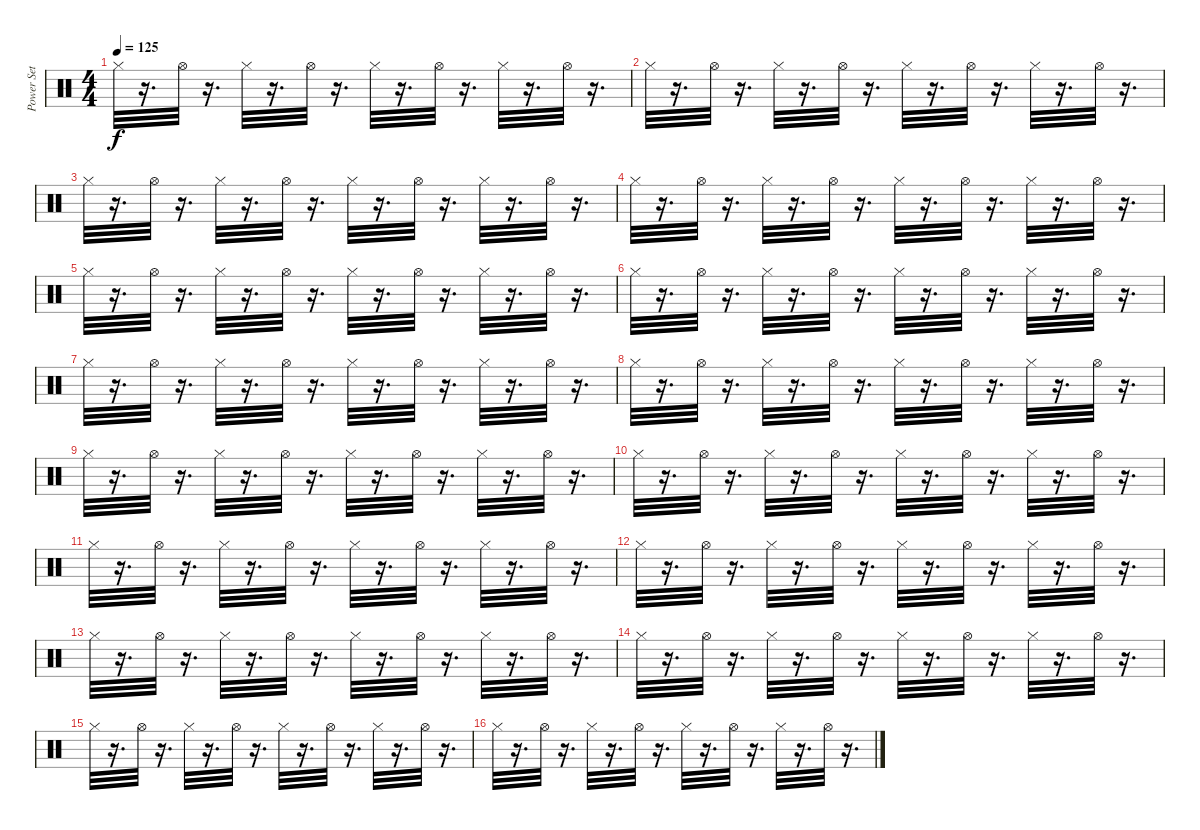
\track ("Power Set" "Power Set") {instrument percussion}
\staff {score}
\articulation defaults
\ts (4 4)
\tempo 125
\clef neutral
\ks c "Hi-Hat (closed)".32{dy f}
r.16{d} "Hi-Hat (open)".32 r.16{d} "Hi-Hat (closed)".32 r.16{d} "Hi-Hat (open)".32 r.16{d} "Hi-Hat (closed)".32 r.16{d} "Hi-Hat (open)".32 r.16{d} "Hi-Hat (closed)".32 r.16{d} "Hi-Hat (open)".32 r.16{d} |
"Hi-Hat (closed)".32 r.16{d} "Hi-Hat (open)".32 r.16{d} "Hi-Hat (closed)".32 r.16{d} "Hi-Hat (open)".32 r.16{d} "Hi-Hat (closed)".32 r.16{d} "Hi-Hat (open)".32 r.16{d} "Hi-Hat (closed)".32 r.16{d} "Hi-Hat (open)".32 r.16{d} |
"Hi-Hat (closed)".32 r.16{d} "Hi-Hat (open)".32 r.16{d} "Hi-Hat (closed)".32 r.16{d} "Hi-Hat (open)".32 r.16{d} "Hi-Hat (closed)".32 r.16{d} "Hi-Hat (open)".32 r.16{d} "Hi-Hat (closed)".32 r.16{d} "Hi-Hat (open)".32 r.16{d} |
"Hi-Hat (closed)".32 r.16{d} "Hi-Hat (open)".32 r.16{d} "Hi-Hat (closed)".32 r.16{d} "Hi-Hat (open)".32 r.16{d} "Hi-Hat (closed)".32 r.16{d} "Hi-Hat (open)".32 r.16{d} "Hi-Hat (closed)".32 r.16{d} "Hi-Hat (open)".32 r.16{d} |
"Hi-Hat (closed)".32 r.16{d} "Hi-Hat (open)".32 r.16{d} "Hi-Hat (closed)".32 r.16{d} "Hi-Hat (open)".32 r.16{d} "Hi-Hat (closed)".32 r.16{d} "Hi-Hat (open)".32 r.16{d} "Hi-Hat (closed)".32 r.16{d} "Hi-Hat (open)".32 r.16{d} |
"Hi-Hat (closed)".32 r.16{d} "Hi-Hat (open)".32 r.16{d} "Hi-Hat (closed)".32 r.16{d} "Hi-Hat (open)".32 r.16{d} "Hi-Hat (closed)".32 r.16{d} "Hi-Hat (open)".32 r.16{d} "Hi-Hat (closed)".32 r.16{d} "Hi-Hat (open)".32 r.16{d} |
"Hi-Hat (closed)".32 r.16{d} "Hi-Hat (open)".32 r.16{d} "Hi-Hat (closed)".32 r.16{d} "Hi-Hat (open)".32 r.16{d} "Hi-Hat (closed)".32 r.16{d} "Hi-Hat (open)".32 r.16{d} "Hi-Hat (closed)".32 r.16{d} "Hi-Hat (open)".32 r.16{d} |
"Hi-Hat (closed)".32 r.16{d} "Hi-Hat (open)".32 r.16{d} "Hi-Hat (closed)".32 r.16{d} "Hi-Hat (open)".32 r.16{d} "Hi-Hat (closed)".32 r.16{d} "Hi-Hat (open)".32 r.16{d} "Hi-Hat (closed)".32 r.16{d} "Hi-Hat (open)".32 r.16{d} |
"Hi-Hat (closed)".32 r.16{d} "Hi-Hat (open)".32 r.16{d} "Hi-Hat (closed)".32 r.16{d} "Hi-Hat (open)".32 r.16{d} "Hi-Hat (closed)".32 r.16{d} "Hi-Hat (open)".32 r.16{d} "Hi-Hat (closed)".32 r.16{d} "Hi-Hat (open)".32 r.16{d} |
"Hi-Hat (closed)".32 r.16{d} "Hi-Hat (open)".32 r.16{d} "Hi-Hat (closed)".32 r.16{d} "Hi-Hat (open)".32 r.16{d} "Hi-Hat (closed)".32 r.16{d} "Hi-Hat (open)".32 r.16{d} "Hi-Hat (closed)".32 r.16{d} "Hi-Hat (open)".32 r.16{d} |
"Hi-Hat (closed)".32 r.16{d} "Hi-Hat (open)".32 r.16{d} "Hi-Hat (closed)".32 r.16{d} "Hi-Hat (open)".32 r.16{d} "Hi-Hat (closed)".32 r.16{d} "Hi-Hat (open)".32 r.16{d} "Hi-Hat (closed)".32 r.16{d} "Hi-Hat (open)".32 r.16{d} |
"Hi-Hat (closed)".32 r.16{d} "Hi-Hat (open)".32 r.16{d} "Hi-Hat (closed)".32 r.16{d} "Hi-Hat (open)".32 r.16{d} "Hi-Hat (closed)".32 r.16{d} "Hi-Hat (open)".32 r.16{d} "Hi-Hat (closed)".32 r.16{d} "Hi-Hat (open)".32 r.16{d} |
"Hi-Hat (closed)".32 r.16{d} "Hi-Hat (open)".32 r.16{d} "Hi-Hat (closed)".32 r.16{d} "Hi-Hat (open)".32 r.16{d} "Hi-Hat (closed)".32 r.16{d} "Hi-Hat (open)".32 r.16{d} "Hi-Hat (closed)".32 r.16{d} "Hi-Hat (open)".32 r.16{d} |
"Hi-Hat (closed)".32 r.16{d} "Hi-Hat (open)".32 r.16{d} "Hi-Hat (closed)".32 r.16{d} "Hi-Hat (open)".32 r.16{d} "Hi-Hat (closed)".32 r.16{d} "Hi-Hat (open)".32 r.16{d} "Hi-Hat (closed)".32 r.16{d} "Hi-Hat (open)".32 r.16{d} |
"Hi-Hat (closed)".32 r.16{d} "Hi-Hat (open)".32 r.16{d} "Hi-Hat (closed)".32 r.16{d} "Hi-Hat (open)".32 r.16{d} "Hi-Hat (closed)".32 r.16{d} "Hi-Hat (open)".32 r.16{d} "Hi-Hat (closed)".32 r.16{d} "Hi-Hat (open)".32 r.16{d} |
"Hi-Hat (closed)".32 r.16{d} "Hi-Hat (open)".32 r.16{d} "Hi-Hat (closed)".32 r.16{d} "Hi-Hat (open)".32 r.16{d} "Hi-Hat (closed)".32 r.16{d} "Hi-Hat (open)".32 r.16{d} "Hi-Hat (closed)".32 r.16{d} "Hi-Hat (open)".32 r.16{d}
